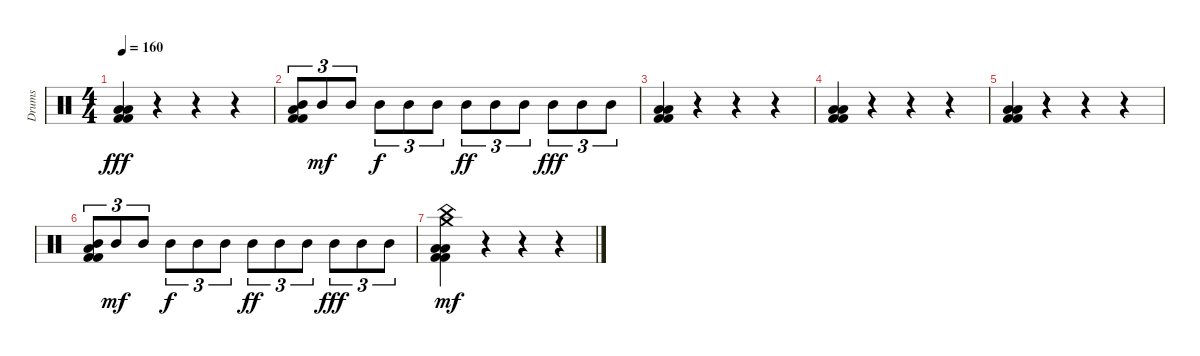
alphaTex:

\track ("Drums" "Drums") {instrument percussion}
\staff {score}
\articulation defaults
\ts (4 4)
\tempo 160
\clef neutral
\ks c
("Low Tom (hit)" "Kick (hit) 2" "Kick (hit) 2" "Low Tom (hit)").4{dy fff} r.4 r.4 r.4 |
("Mid Tom (hit)" "Low Tom (hit)" "Kick (hit) 2" "Kick (hit) 2").8{tu (3 2)} "Mid Tom (hit)".8{tu (3 2) dy mf} "Mid Tom (hit)".8{tu (3 2)} "Mid Tom (hit)".8{tu (3 2) dy f} "Mid Tom (hit)".8{tu (3 2)} "Mid Tom (hit)".8{tu (3 2)} "Mid Tom (hit)".8{tu (3 2) dy ff} "Mid Tom (hit)".8{tu (3 2)} "Mid Tom (hit)".8{tu (3 2)} "Mid Tom (hit)".8{tu (3 2) dy fff} "Mid Tom (hit)".8{tu (3 2)} "Mid Tom (hit)".8{tu (3 2)} |
("Low Tom (hit)" "Kick (hit) 2" "Kick (hit) 2" "Low Tom (hit)").4 r.4 r.4 r.4 |
("Low Tom (hit)" "Kick (hit) 2" "Kick (hit) 2" "Low Tom (hit)").4 r.4 r.4 r.4 |
("Low Tom (hit)" "Kick (hit) 2" "Kick (hit) 2" "Low Tom (hit)").4 r.4 r.4 r.4 |
("Mid Tom (hit)" "Low Tom (hit)" "Kick (hit) 2" "Kick (hit) 2").8{tu (3 2)} "Mid Tom (hit)".8{tu (3 2) dy mf} "Mid Tom (hit)".8{tu (3 2)} "Mid Tom (hit)".8{tu (3 2) dy f} "Mid Tom (hit)".8{tu (3 2)} "Mid Tom (hit)".8{tu (3 2)} "Mid Tom (hit)".8{tu (3 2) dy ff} "Mid Tom (hit)".8{tu (3 2)} "Mid Tom (hit)".8{tu (3 2)} "Mid Tom (hit)".8{tu (3 2) dy fff} "Mid Tom (hit)".8{tu (3 2)} "Mid Tom (hit)".8{tu (3 2)} |
("Low Tom (hit)" "Kick (hit) 2" "Kick (hit) 2" "Low Tom (hit)" "Crash medium (hit)" "China (hit)").4{dy mf} r.4 r.4 r.4
